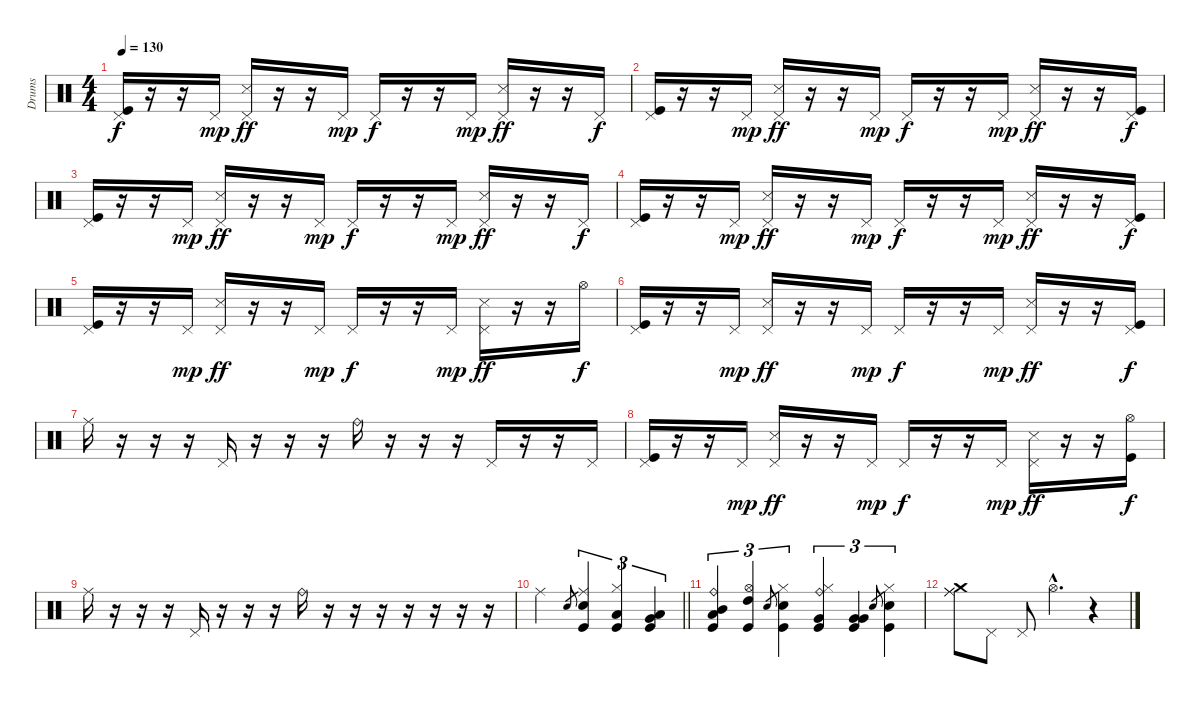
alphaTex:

\track ("Drums" "Drums") {instrument percussion}
\staff {score}
\articulation defaults
\ts (4 4)
\tempo 130
\clef neutral
\ks c
("Pedal Hi-Hat (hit)" "Kick (hit)").16{dy f} r.16 r.16 "Pedal Hi-Hat (hit)".16{dy mp} ("Pedal Hi-Hat (hit)" "Snare (side stick) 3").16{dy ff} r.16 r.16 "Pedal Hi-Hat (hit)".16{dy mp} "Pedal Hi-Hat (hit)".16{dy f} r.16 r.16 "Pedal Hi-Hat (hit)".16{dy mp} ("Pedal Hi-Hat (hit)" "Snare (side stick) 3").16{dy ff} r.16 r.16 "Pedal Hi-Hat (hit)".16{dy f} |
("Pedal Hi-Hat (hit)" "Kick (hit)").16 r.16 r.16 "Pedal Hi-Hat (hit)".16{dy mp} ("Pedal Hi-Hat (hit)" "Snare (side stick) 3").16{dy ff} r.16 r.16 "Pedal Hi-Hat (hit)".16{dy mp} "Pedal Hi-Hat (hit)".16{dy f} r.16 r.16 "Pedal Hi-Hat (hit)".16{dy mp} ("Pedal Hi-Hat (hit)" "Snare (side stick) 3").16{dy ff} r.16 r.16 ("Pedal Hi-Hat (hit)" "Kick (hit)").16{dy f} |
("Pedal Hi-Hat (hit)" "Kick (hit)").16 r.16 r.16 "Pedal Hi-Hat (hit)".16{dy mp} ("Pedal Hi-Hat (hit)" "Snare (side stick) 3").16{dy ff} r.16 r.16 "Pedal Hi-Hat (hit)".16{dy mp} "Pedal Hi-Hat (hit)".16{dy f} r.16 r.16 "Pedal Hi-Hat (hit)".16{dy mp} ("Pedal Hi-Hat (hit)" "Snare (side stick) 3").16{dy ff} r.16 r.16 "Pedal Hi-Hat (hit)".16{dy f} |
("Pedal Hi-Hat (hit)" "Kick (hit)").16 r.16 r.16 "Pedal Hi-Hat (hit)".16{dy mp} ("Pedal Hi-Hat (hit)" "Snare (side stick) 3").16{dy ff} r.16 r.16 "Pedal Hi-Hat (hit)".16{dy mp} "Pedal Hi-Hat (hit)".16{dy f} r.16 r.16 "Pedal Hi-Hat (hit)".16{dy mp} ("Pedal Hi-Hat (hit)" "Snare (side stick) 3").16{dy ff} r.16 r.16 ("Pedal Hi-Hat (hit)" "Kick (hit)").16{dy f} |
("Pedal Hi-Hat (hit)" "Kick (hit)").16 r.16 r.16 "Pedal Hi-Hat (hit)".16{dy mp} ("Pedal Hi-Hat (hit)" "Snare (side stick) 3").16{dy ff} r.16 r.16 "Pedal Hi-Hat (hit)".16{dy mp} "Pedal Hi-Hat (hit)".16{dy f} r.16 r.16 "Pedal Hi-Hat (hit)".16{dy mp} ("Pedal Hi-Hat (hit)" "Snare (side stick) 3").16{dy ff} r.16 r.16 "Hi-Hat (open)".16{dy f} |
("Pedal Hi-Hat (hit)" "Kick (hit)").16 r.16 r.16 "Pedal Hi-Hat (hit)".16{dy mp} ("Pedal Hi-Hat (hit)" "Snare (side stick) 3").16{dy ff} r.16 r.16 "Pedal Hi-Hat (hit)".16{dy mp} "Pedal Hi-Hat (hit)".16{dy f} r.16 r.16 "Pedal Hi-Hat (hit)".16{dy mp} ("Pedal Hi-Hat (hit)" "Snare (side stick) 3").16{dy ff} r.16 r.16 ("Pedal Hi-Hat (hit)" "Kick (hit)").16{dy f} |
"Ride (middle)".16 r.16 r.16 r.16 "Pedal Hi-Hat (hit)".16 r.16 r.16 r.16 "Ride (bell)".16 r.16 r.16 r.16 "Pedal Hi-Hat (hit)".16 r.16 r.16 "Pedal Hi-Hat (hit)".16 |
("Pedal Hi-Hat (hit)" "Kick (hit)").16 r.16 r.16 "Pedal Hi-Hat (hit)".16{dy mp} ("Pedal Hi-Hat (hit)" "Snare (side stick) 3").16{dy ff} r.16 r.16 "Pedal Hi-Hat (hit)".16{dy mp} "Pedal Hi-Hat (hit)".16{dy f} r.16 r.16 "Pedal Hi-Hat (hit)".16{dy mp} ("Pedal Hi-Hat (hit)" "Snare (side stick) 3").16{dy ff} r.16 r.16 ("Hi-Hat (open)" "Kick (hit)").16{dy f} |
"Ride (middle)".16 r.16 r.16 r.16 "Pedal Hi-Hat (hit)".16 r.16 r.16 r.16 "Ride (bell)".16 r.16 r.16 r.16 r.16 r.16 r.16 r.16 |
\barLineRight lightlight "Ride (middle)".2 "Electric Snare (hit)".8{gr}
("Ride (middle)" "Electric Snare (hit)" "Kick (hit)").4{tu (3 2)} ("Hi-Hat (closed)" "Low Tom (hit)" "Kick (hit)").4{tu (3 2)} ("Low Floor Tom (hit)" "Very Low Tom (hit)" "Kick (hit)").4{tu (3 2)} |
("Ride (bell)" "Mid Tom (hit)" "Low Floor Tom (hit)" "Kick (hit)").4{tu (3 2)} ("High Tom (hit)" "Hi-Hat (open)" "Kick (hit)").4{tu (3 2)} "Electric Snare (hit)".8{gr} ("Electric Snare (hit)" "Hi-Hat (closed)" "Kick (hit)").4{tu (3 2)} ("Ride (bell)" "Very Low Tom (hit)" "Hi-Hat (closed)" "Kick (hit)").4{tu (3 2)} ("Very Low Tom (hit)" "Very Low Tom (hit)" "Kick (hit)").4{tu (3 2)} "Electric Snare (hit)".8{gr} ("Hi-Hat (closed)" "Electric Snare (hit)" "Kick (hit)").4{tu (3 2)} |
("Crash medium (hit)" "Ride (middle)" "Ride (middle)").8 "Pedal Hi-Hat (hit)".8 "Pedal Hi-Hat (hit)".8 "Hi-Hat (open)"{hac}.4{d} r.4
